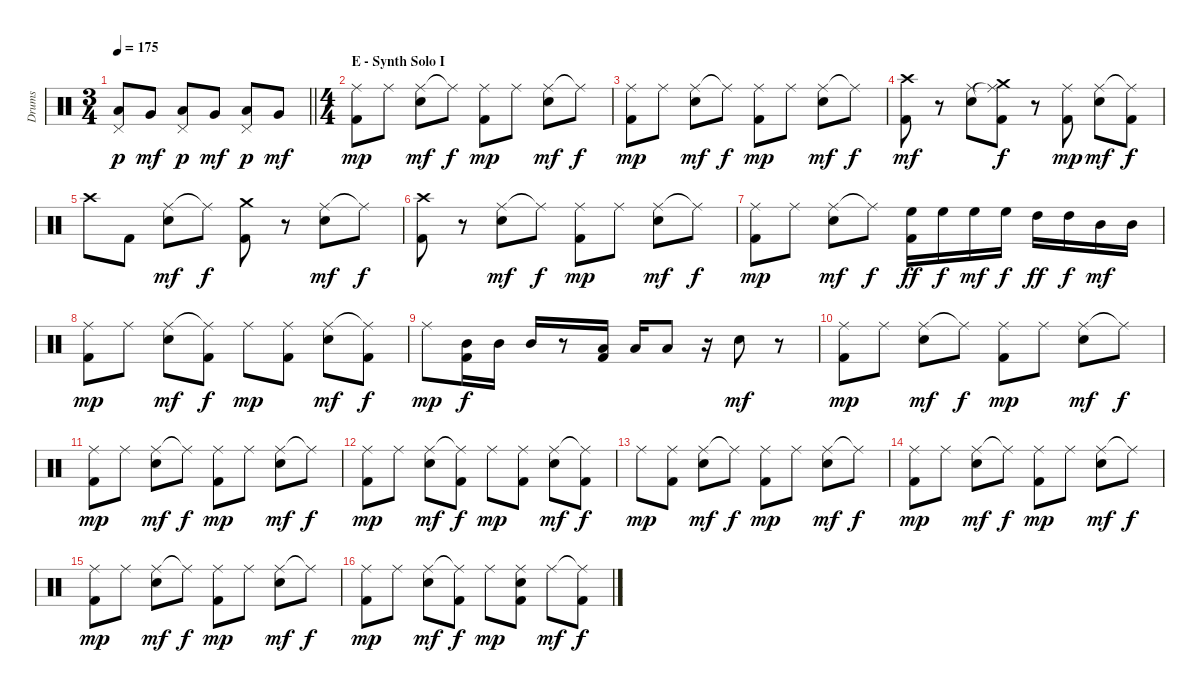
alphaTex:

\track ("Drums" "Drums") {instrument percussion}
\staff {score}
\articulation defaults
\ts (3 4)
\tempo 175
\clef neutral
\barLineRight lightlight
\ks c
("Pedal Hi-Hat (hit)" "Low Floor Tom (hit)").8{dy p} "Very Low Tom (hit)".8{dy mf} ("Pedal Hi-Hat (hit)" "Low Floor Tom (hit)").8{dy p} "Very Low Tom (hit)".8{dy mf} ("Pedal Hi-Hat (hit)" "Low Floor Tom (hit)").8{dy p} "Very Low Tom (hit)".8{dy mf} |
\ts (4 4)
\section ("" "E - Synth Solo I")
("Ride (middle)" "Kick (hit) 2").8{dy mp} "Ride (middle)".8 ("Ride (middle)" "Electric Snare (hit)").8{dy mf} "Ride (middle)"{t}.8{dy f} ("Ride (middle)" "Kick (hit) 2").8{dy mp} "Ride (middle)".8 ("Ride (middle)" "Electric Snare (hit)").8{dy mf} "Ride (middle)"{t}.8{dy f} |
("Ride (middle)" "Kick (hit) 2").8{dy mp} "Ride (middle)".8 ("Ride (middle)" "Electric Snare (hit)").8{dy mf} "Ride (middle)"{t}.8{dy f} ("Ride (middle)" "Kick (hit) 2").8{dy mp} "Ride (middle)".8 ("Ride (middle)" "Electric Snare (hit)").8{dy mf} "Ride (middle)"{t}.8{dy f} |
("Crash high (hit)" "Kick (hit) 2").8{dy mf} r.8 ("Ride (middle)" "Electric Snare (hit)").8 ("Crash medium (hit)" "Ride (middle)"{t} "Kick (hit) 2").8{dy f} r.8 ("Ride (middle)" "Kick (hit) 2").8{dy mp} ("Ride (middle)" "Electric Snare (hit)").8{dy mf} ("Ride (middle)"{t} "Kick (hit) 2").8{dy f} |
"Crash high (hit)".8 "Kick (hit) 2".8 ("Ride (middle)" "Electric Snare (hit)").8{dy mf} "Ride (middle)"{t}.8{dy f} ("Crash medium (hit)" "Kick (hit) 2").8 r.8 ("Ride (middle)" "Electric Snare (hit)").8{dy mf} "Ride (middle)"{t}.8{dy f} |
("Crash high (hit)" "Kick (hit) 2").8 r.8 ("Ride (middle)" "Electric Snare (hit)").8{dy mf} "Ride (middle)"{t}.8{dy f} ("Ride (middle)" "Kick (hit) 2").8{dy mp} "Ride (middle)".8 ("Ride (middle)" "Electric Snare (hit)").8{dy mf} "Ride (middle)"{t}.8{dy f} |
("Ride (middle)" "Kick (hit) 2").8{dy mp} "Ride (middle)".8 ("Ride (middle)" "Electric Snare (hit)").8{dy mf} "Ride (middle)"{t}.8{dy f} ("High Floor Tom (hit)" "Kick (hit) 2").16{dy ff} "High Floor Tom (hit)".16{dy f} "High Floor Tom (hit)".16{dy mf} "High Floor Tom (hit)".16{dy f} "High Tom (hit)".16{dy ff} "High Tom (hit)".16{dy f} "Mid Tom (hit)".16{dy mf} "Mid Tom (hit)".16 |
("Ride (middle)" "Kick (hit) 2").8{dy mp} "Ride (middle)".8 ("Ride (middle)" "Electric Snare (hit)").8{dy mf} ("Ride (middle)"{t} "Kick (hit) 2").8{dy f} "Ride (middle)".8{dy mp} ("Ride (middle)" "Kick (hit) 2").8 ("Ride (middle)" "Electric Snare (hit)").8{dy mf} ("Ride (middle)"{t} "Kick (hit) 2").8{dy f} |
"Ride (middle)".8{dy mp} ("Mid Tom (hit)" "Kick (hit) 2").16{dy f} "Mid Tom (hit)".16 "Mid Tom (hit)".16 r.8 ("Low Tom (hit)" "Kick (hit) 2").16 "Low Tom (hit)".16 "Low Tom (hit)".8 r.16 "Electric Snare (hit)".8{dy mf} r.8 |
("Ride (middle)" "Kick (hit) 2").8{dy mp} "Ride (middle)".8 ("Ride (middle)" "Electric Snare (hit)").8{dy mf} "Ride (middle)"{t}.8{dy f} ("Ride (middle)" "Kick (hit) 2").8{dy mp} "Ride (middle)".8 ("Ride (middle)" "Electric Snare (hit)").8{dy mf} "Ride (middle)"{t}.8{dy f} |
("Ride (middle)" "Kick (hit) 2").8{dy mp} "Ride (middle)".8 ("Ride (middle)" "Electric Snare (hit)").8{dy mf} "Ride (middle)"{t}.8{dy f} ("Ride (middle)" "Kick (hit) 2").8{dy mp} "Ride (middle)".8 ("Ride (middle)" "Electric Snare (hit)").8{dy mf} "Ride (middle)"{t}.8{dy f} |
("Ride (middle)" "Kick (hit) 2").8{dy mp} "Ride (middle)".8 ("Ride (middle)" "Electric Snare (hit)").8{dy mf} ("Ride (middle)"{t} "Kick (hit) 2").8{dy f} "Ride (middle)".8{dy mp} ("Ride (middle)" "Kick (hit) 2").8 ("Ride (middle)" "Electric Snare (hit)").8{dy mf} ("Ride (middle)"{t} "Kick (hit) 2").8{dy f} |
"Ride (middle)".8{dy mp} ("Ride (middle)" "Kick (hit) 2").8 ("Ride (middle)" "Electric Snare (hit)").8{dy mf} "Ride (middle)"{t}.8{dy f} ("Ride (middle)" "Kick (hit) 2").8{dy mp} "Ride (middle)".8 ("Ride (middle)" "Electric Snare (hit)").8{dy mf} "Ride (middle)"{t}.8{dy f} |
("Ride (middle)" "Kick (hit) 2").8{dy mp} "Ride (middle)".8 ("Ride (middle)" "Electric Snare (hit)").8{dy mf} "Ride (middle)"{t}.8{dy f} ("Ride (middle)" "Kick (hit) 2").8{dy mp} "Ride (middle)".8 ("Ride (middle)" "Electric Snare (hit)").8{dy mf} "Ride (middle)"{t}.8{dy f} |
("Ride (middle)" "Kick (hit) 2").8{dy mp} "Ride (middle)".8 ("Ride (middle)" "Electric Snare (hit)").8{dy mf} "Ride (middle)"{t}.8{dy f} ("Ride (middle)" "Kick (hit) 2").8{dy mp} "Ride (middle)".8 ("Ride (middle)" "Electric Snare (hit)").8{dy mf} "Ride (middle)"{t}.8{dy f} |
("Ride (middle)" "Kick (hit) 2").8{dy mp} "Ride (middle)".8 ("Ride (middle)" "Electric Snare (hit)").8{dy mf} ("Ride (middle)"{t} "Kick (hit) 2").8{dy f} "Ride (middle)".8{dy mp} ("Ride (middle)" "Electric Snare (hit)" "Kick (hit) 2").8 "Ride (middle)".8{dy mf} ("Ride (middle)"{t} "Kick (hit) 2").8{dy f}
